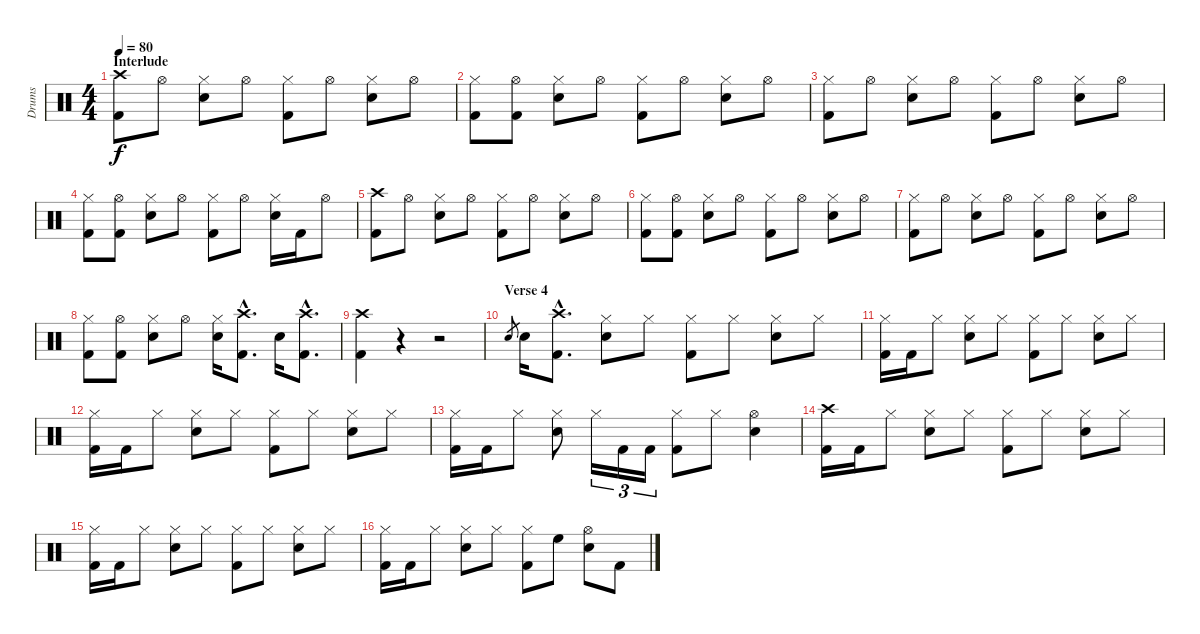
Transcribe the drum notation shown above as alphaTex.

\track ("Drums" "Drums") {instrument percussion}
\staff {score}
\articulation defaults
\ts (4 4)
\section ("" "Interlude")
\tempo 80
\clef neutral
\ks c
("Crash high (hit)" "Kick (hit) 2").8{dy f} "Hi-Hat (open)".8 ("Hi-Hat (closed)" "Electric Snare (hit)").8 "Hi-Hat (open)".8 ("Hi-Hat (closed)" "Kick (hit) 2").8 "Hi-Hat (open)".8 ("Hi-Hat (closed)" "Electric Snare (hit)").8 "Hi-Hat (open)".8 |
("Hi-Hat (closed)" "Kick (hit) 2").8 ("Hi-Hat (open)" "Kick (hit) 2").8 ("Hi-Hat (closed)" "Electric Snare (hit)").8 "Hi-Hat (open)".8 ("Hi-Hat (closed)" "Kick (hit) 2").8 "Hi-Hat (open)".8 ("Hi-Hat (closed)" "Electric Snare (hit)").8 "Hi-Hat (open)".8 |
("Hi-Hat (closed)" "Kick (hit) 2").8 "Hi-Hat (open)".8 ("Hi-Hat (closed)" "Electric Snare (hit)").8 "Hi-Hat (open)".8 ("Hi-Hat (closed)" "Kick (hit) 2").8 "Hi-Hat (open)".8 ("Hi-Hat (closed)" "Electric Snare (hit)").8 "Hi-Hat (open)".8 |
("Hi-Hat (closed)" "Kick (hit) 2").8 ("Hi-Hat (open)" "Kick (hit) 2").8 ("Hi-Hat (closed)" "Electric Snare (hit)").8 "Hi-Hat (open)".8 ("Hi-Hat (closed)" "Kick (hit) 2").8 "Hi-Hat (open)".8 ("Hi-Hat (closed)" "Electric Snare (hit)").16 "Kick (hit) 2".16 "Hi-Hat (open)".8 |
("Crash high (hit)" "Kick (hit) 2").8 "Hi-Hat (open)".8 ("Hi-Hat (closed)" "Electric Snare (hit)").8 "Hi-Hat (open)".8 ("Hi-Hat (closed)" "Kick (hit) 2").8 "Hi-Hat (open)".8 ("Hi-Hat (closed)" "Electric Snare (hit)").8 "Hi-Hat (open)".8 |
("Hi-Hat (closed)" "Kick (hit) 2").8 ("Hi-Hat (open)" "Kick (hit) 2").8 ("Hi-Hat (closed)" "Electric Snare (hit)").8 "Hi-Hat (open)".8 ("Hi-Hat (closed)" "Kick (hit) 2").8 "Hi-Hat (open)".8 ("Hi-Hat (closed)" "Electric Snare (hit)").8 "Hi-Hat (open)".8 |
("Hi-Hat (closed)" "Kick (hit) 2").8 "Hi-Hat (open)".8 ("Hi-Hat (closed)" "Electric Snare (hit)").8 "Hi-Hat (open)".8 ("Hi-Hat (closed)" "Kick (hit) 2").8 "Hi-Hat (open)".8 ("Hi-Hat (closed)" "Electric Snare (hit)").8 "Hi-Hat (open)".8 |
("Hi-Hat (closed)" "Kick (hit) 2").8 ("Hi-Hat (open)" "Kick (hit) 2").8 ("Hi-Hat (closed)" "Electric Snare (hit)").8 "Hi-Hat (open)".8 ("Hi-Hat (closed)" "Electric Snare (hit)").16 ("Crash high (hit)"{hac} "Kick (hit) 2"{hac}).8{d} "Electric Snare (hit)".16 ("Crash high (hit)"{hac} "Kick (hit) 2"{hac}).8{d} |
("Crash high (hit)" "Kick (hit) 2").4 r.4 r.2 |
\section ("" "Verse 4")
"Electric Snare (hit)".8{gr} "Electric Snare (hit)".16 ("Crash high (hit)"{hac} "Kick (hit) 2"{hac}).8{d} ("Hi-Hat (closed)" "Electric Snare (hit)").8 "Hi-Hat (closed)".8 ("Hi-Hat (closed)" "Kick (hit) 2").8 "Hi-Hat (closed)".8 ("Hi-Hat (closed)" "Electric Snare (hit)").8 "Hi-Hat (closed)".8 |
("Hi-Hat (closed)" "Kick (hit) 2").16 "Kick (hit) 2".16 "Hi-Hat (closed)".8 ("Hi-Hat (closed)" "Electric Snare (hit)").8 "Hi-Hat (closed)".8 ("Hi-Hat (closed)" "Kick (hit) 2").8 "Hi-Hat (closed)".8 ("Hi-Hat (closed)" "Electric Snare (hit)").8 "Hi-Hat (closed)".8 |
("Hi-Hat (closed)" "Kick (hit) 2").16 "Kick (hit) 2".16 "Hi-Hat (closed)".8 ("Hi-Hat (closed)" "Electric Snare (hit)").8 "Hi-Hat (closed)".8 ("Hi-Hat (closed)" "Kick (hit) 2").8 "Hi-Hat (closed)".8 ("Hi-Hat (closed)" "Electric Snare (hit)").8 "Hi-Hat (closed)".8 |
("Hi-Hat (closed)" "Kick (hit) 2").16 "Kick (hit) 2".16 "Hi-Hat (closed)".8 ("Hi-Hat (closed)" "Electric Snare (hit)").8 "Hi-Hat (closed)".16{tu (3 2)} "Kick (hit) 2".16{tu (3 2)} "Kick (hit) 2".16{tu (3 2)} ("Hi-Hat (closed)" "Kick (hit) 2").8 "Hi-Hat (closed)".8 ("Hi-Hat (open)" "Electric Snare (hit)").4 |
("Crash high (hit)" "Kick (hit) 2").16 "Kick (hit) 2".16 "Hi-Hat (closed)".8 ("Hi-Hat (closed)" "Electric Snare (hit)").8 "Hi-Hat (closed)".8 ("Hi-Hat (closed)" "Kick (hit) 2").8 "Hi-Hat (closed)".8 ("Hi-Hat (closed)" "Electric Snare (hit)").8 "Hi-Hat (closed)".8 |
("Hi-Hat (closed)" "Kick (hit) 2").16 "Kick (hit) 2".16 "Hi-Hat (closed)".8 ("Hi-Hat (closed)" "Electric Snare (hit)").8 "Hi-Hat (closed)".8 ("Hi-Hat (closed)" "Kick (hit) 2").8 "Hi-Hat (closed)".8 ("Hi-Hat (closed)" "Electric Snare (hit)").8 "Hi-Hat (closed)".8 |
("Hi-Hat (closed)" "Kick (hit) 2").16 "Kick (hit) 2".16 "Hi-Hat (closed)".8 ("Hi-Hat (closed)" "Electric Snare (hit)").8 "Hi-Hat (closed)".8 ("Hi-Hat (closed)" "Kick (hit) 2").8 "High Floor Tom (hit)".8 ("Hi-Hat (open)" "Electric Snare (hit)").8 "Kick (hit) 2".8
